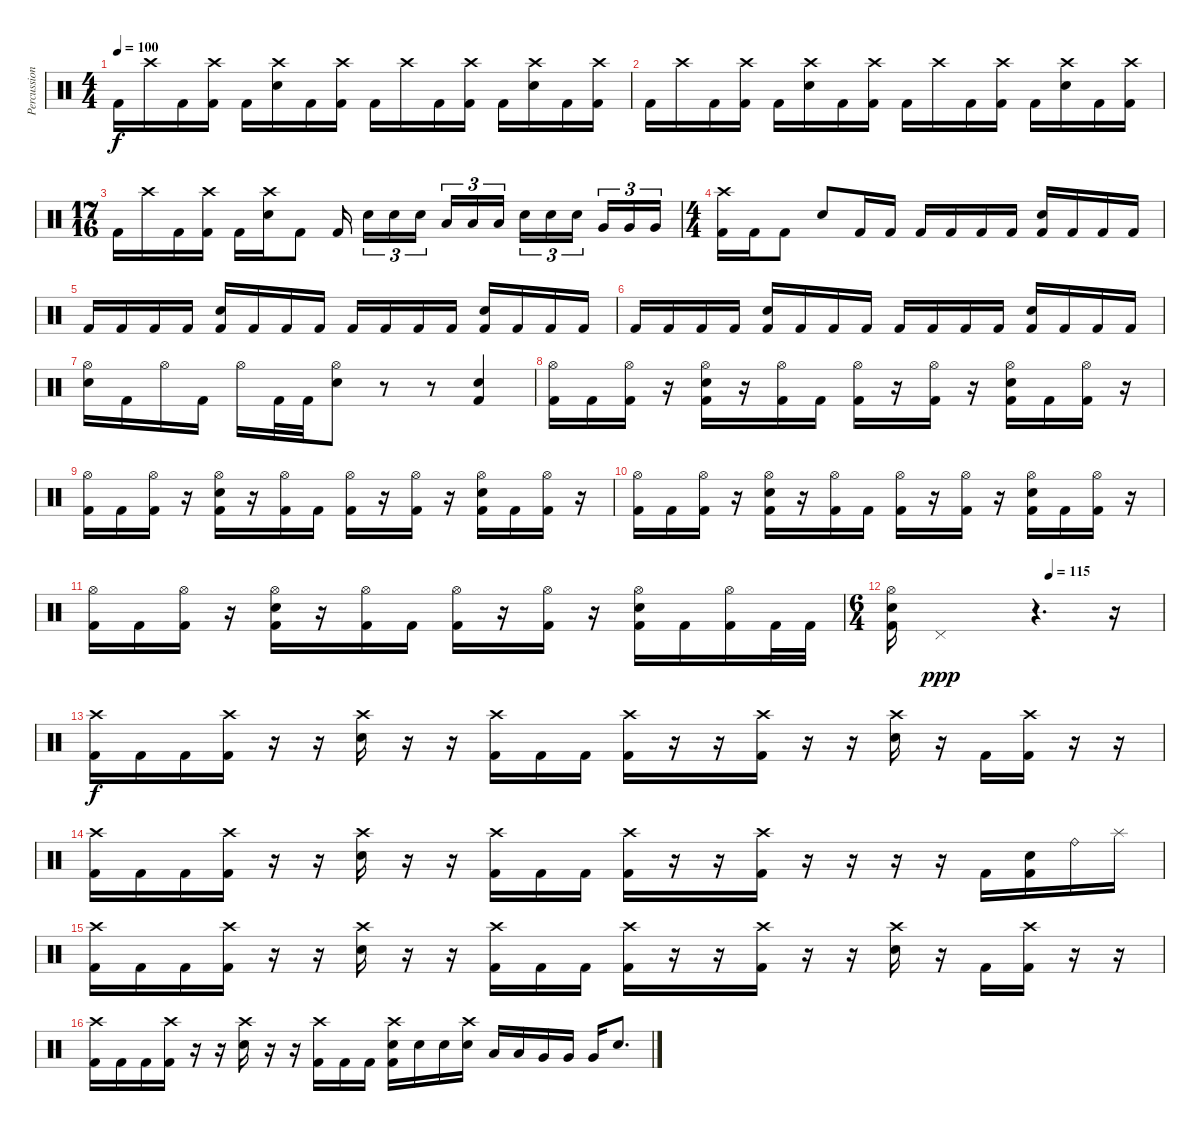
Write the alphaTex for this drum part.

\track ("Percussion" "Percussion") {instrument percussion}
\staff {score}
\articulation defaults
\ts (4 4)
\tempo 100
\clef neutral
\ks c "Kick (hit) 2".16{dy f} "Crash high (hit)".16 "Kick (hit) 2".16
("Crash high (hit)" "Kick (hit) 2").16 "Kick (hit) 2".16 ("Crash high (hit)" "Electric Snare (hit)").16 "Kick (hit) 2".16 ("Crash high (hit)" "Kick (hit) 2").16 "Kick (hit) 2".16 "Crash high (hit)".16 "Kick (hit) 2".16 ("Crash high (hit)" "Kick (hit) 2").16 "Kick (hit) 2".16 ("Crash high (hit)" "Electric Snare (hit)").16 "Kick (hit) 2".16 ("Crash high (hit)" "Kick (hit) 2").16 |
"Kick (hit) 2".16 "Crash high (hit)".16 "Kick (hit) 2".16 ("Crash high (hit)" "Kick (hit) 2").16 "Kick (hit) 2".16 ("Crash high (hit)" "Electric Snare (hit)").16 "Kick (hit) 2".16 ("Crash high (hit)" "Kick (hit) 2").16 "Kick (hit) 2".16 "Crash high (hit)".16 "Kick (hit) 2".16 ("Crash high (hit)" "Kick (hit) 2").16 "Kick (hit) 2".16 ("Crash high (hit)" "Electric Snare (hit)").16 "Kick (hit) 2".16 ("Crash high (hit)" "Kick (hit) 2").16 |
\ts (17 16)
"Kick (hit) 2".16 "Crash high (hit)".16 "Kick (hit) 2".16 ("Crash high (hit)" "Kick (hit) 2").16 "Kick (hit) 2".16 ("Crash high (hit)" "Electric Snare (hit)").16 "Kick (hit) 2".8 "Kick (hit) 2".16 "Electric Snare (hit)".16{tu (3 2)} "Electric Snare (hit)".16{tu (3 2)} "Electric Snare (hit)".16{tu (3 2)} "Low Tom (hit)".16{tu (3 2)} "Low Tom (hit)".16{tu (3 2)} "Low Tom (hit)".16{tu (3 2)} "Electric Snare (hit)".16{tu (3 2)} "Electric Snare (hit)".16{tu (3 2)} "Electric Snare (hit)".16{tu (3 2)} "Very Low Tom (hit)".16{tu (3 2)} "Very Low Tom (hit)".16{tu (3 2)} "Very Low Tom (hit)".16{tu (3 2)} |
\ts (4 4)
("Crash high (hit)" "Kick (hit) 2").16 "Kick (hit) 2".16 "Kick (hit) 2".8 "Electric Snare (hit)".8 "Kick (hit) 2".16 "Kick (hit) 2".16 "Kick (hit) 2".16 "Kick (hit) 2".16 "Kick (hit) 2".16 "Kick (hit) 2".16 ("Electric Snare (hit)" "Kick (hit) 2").16 "Kick (hit) 2".16 "Kick (hit) 2".16 "Kick (hit) 2".16 |
"Kick (hit) 2".16 "Kick (hit) 2".16 "Kick (hit) 2".16 "Kick (hit) 2".16 ("Electric Snare (hit)" "Kick (hit) 2").16 "Kick (hit) 2".16 "Kick (hit) 2".16 "Kick (hit) 2".16 "Kick (hit) 2".16 "Kick (hit) 2".16 "Kick (hit) 2".16 "Kick (hit) 2".16 ("Electric Snare (hit)" "Kick (hit) 2").16 "Kick (hit) 2".16 "Kick (hit) 2".16 "Kick (hit) 2".16 |
"Kick (hit) 2".16 "Kick (hit) 2".16 "Kick (hit) 2".16 "Kick (hit) 2".16 ("Electric Snare (hit)" "Kick (hit) 2").16 "Kick (hit) 2".16 "Kick (hit) 2".16 "Kick (hit) 2".16 "Kick (hit) 2".16 "Kick (hit) 2".16 "Kick (hit) 2".16 "Kick (hit) 2".16 ("Electric Snare (hit)" "Kick (hit) 2").16 "Kick (hit) 2".16 "Kick (hit) 2".16 "Kick (hit) 2".16 |
("Hi-Hat (open)" "Electric Snare (hit)").16 "Kick (hit) 2".16 "Hi-Hat (open)".16 "Kick (hit) 2".16 "Hi-Hat (open)".16 "Kick (hit) 2".32 "Kick (hit) 2".32 ("Hi-Hat (open)" "Electric Snare (hit)").8 r.8 r.8 ("Electric Snare (hit)" "Kick (hit) 2").4 |
("Hi-Hat (open)" "Kick (hit) 2").16 "Kick (hit) 2".16 ("Hi-Hat (open)" "Kick (hit) 2").16 r.16 ("Hi-Hat (open)" "Electric Snare (hit)" "Kick (hit) 2").16 r.16 ("Hi-Hat (open)" "Kick (hit) 2").16 "Kick (hit) 2".16 ("Hi-Hat (open)" "Kick (hit) 2").16 r.16 ("Hi-Hat (open)" "Kick (hit) 2").16 r.16 ("Hi-Hat (open)" "Electric Snare (hit)" "Kick (hit) 2").16 "Kick (hit) 2".16 ("Hi-Hat (open)" "Kick (hit) 2").16 r.16 |
("Hi-Hat (open)" "Kick (hit) 2").16 "Kick (hit) 2".16 ("Hi-Hat (open)" "Kick (hit) 2").16 r.16 ("Hi-Hat (open)" "Electric Snare (hit)" "Kick (hit) 2").16 r.16 ("Hi-Hat (open)" "Kick (hit) 2").16 "Kick (hit) 2".16 ("Hi-Hat (open)" "Kick (hit) 2").16 r.16 ("Hi-Hat (open)" "Kick (hit) 2").16 r.16 ("Hi-Hat (open)" "Electric Snare (hit)" "Kick (hit) 2").16 "Kick (hit) 2".16 ("Hi-Hat (open)" "Kick (hit) 2").16 r.16 |
("Hi-Hat (open)" "Kick (hit) 2").16 "Kick (hit) 2".16 ("Hi-Hat (open)" "Kick (hit) 2").16 r.16 ("Hi-Hat (open)" "Electric Snare (hit)" "Kick (hit) 2").16 r.16 ("Hi-Hat (open)" "Kick (hit) 2").16 "Kick (hit) 2".16 ("Hi-Hat (open)" "Kick (hit) 2").16 r.16 ("Hi-Hat (open)" "Kick (hit) 2").16 r.16 ("Hi-Hat (open)" "Electric Snare (hit)" "Kick (hit) 2").16 "Kick (hit) 2".16 ("Hi-Hat (open)" "Kick (hit) 2").16 r.16 |
("Hi-Hat (open)" "Kick (hit) 2").16 "Kick (hit) 2".16 ("Hi-Hat (open)" "Kick (hit) 2").16 r.16 ("Hi-Hat (open)" "Electric Snare (hit)" "Kick (hit) 2").16 r.16 ("Hi-Hat (open)" "Kick (hit) 2").16 "Kick (hit) 2".16 ("Hi-Hat (open)" "Kick (hit) 2").16 r.16 ("Hi-Hat (open)" "Kick (hit) 2").16 r.16 ("Hi-Hat (open)" "Electric Snare (hit)" "Kick (hit) 2").16 "Kick (hit) 2".16 ("Hi-Hat (open)" "Kick (hit) 2").16 "Kick (hit) 2".32 "Kick (hit) 2".32 |
\ts (6 4)
\tempo (115 0.5833333333333334)
("Hi-Hat (open)" "Electric Snare (hit)" "Kick (hit) 2").16 "Pedal Hi-Hat (hit)".1{dy ppp} r.4{d} r.16 |
("Crash high (hit)" "Kick (hit) 2").16{dy f} "Kick (hit) 2".16 "Kick (hit) 2".16 ("Crash high (hit)" "Kick (hit) 2").16 r.16 r.16 ("Crash high (hit)" "Electric Snare (hit)").16 r.16 r.16 ("Crash high (hit)" "Kick (hit) 2").16 "Kick (hit) 2".16 "Kick (hit) 2".16 ("Crash high (hit)" "Kick (hit) 2").16 r.16 r.16 ("Crash high (hit)" "Kick (hit) 2").16 r.16 r.16 ("Crash high (hit)" "Electric Snare (hit)").16 r.16 "Kick (hit) 2".16 ("Crash high (hit)" "Kick (hit) 2").16 r.16 r.16 |
("Crash high (hit)" "Kick (hit) 2").16 "Kick (hit) 2".16 "Kick (hit) 2".16 ("Crash high (hit)" "Kick (hit) 2").16 r.16 r.16 ("Crash high (hit)" "Electric Snare (hit)").16 r.16 r.16 ("Crash high (hit)" "Kick (hit) 2").16 "Kick (hit) 2".16 "Kick (hit) 2".16 ("Crash high (hit)" "Kick (hit) 2").16 r.16 r.16 ("Crash high (hit)" "Kick (hit) 2").16 r.16 r.16 r.16 r.16 "Kick (hit) 2".16 ("Electric Snare (hit)" "Kick (hit) 2").16 "Ride (bell)".16 "Splash (hit)".16 |
("Crash high (hit)" "Kick (hit) 2").16 "Kick (hit) 2".16 "Kick (hit) 2".16 ("Crash high (hit)" "Kick (hit) 2").16 r.16 r.16 ("Crash high (hit)" "Electric Snare (hit)").16 r.16 r.16 ("Crash high (hit)" "Kick (hit) 2").16 "Kick (hit) 2".16 "Kick (hit) 2".16 ("Crash high (hit)" "Kick (hit) 2").16 r.16 r.16 ("Crash high (hit)" "Kick (hit) 2").16 r.16 r.16 ("Crash high (hit)" "Electric Snare (hit)").16 r.16 "Kick (hit) 2".16 ("Crash high (hit)" "Kick (hit) 2").16 r.16 r.16 |
("Crash high (hit)" "Kick (hit) 2").16 "Kick (hit) 2".16 "Kick (hit) 2".16 ("Crash high (hit)" "Kick (hit) 2").16 r.16 r.16 ("Crash high (hit)" "Electric Snare (hit)").16 r.16 r.16 ("Crash high (hit)" "Kick (hit) 2").16 "Kick (hit) 2".16 "Kick (hit) 2".16 ("Crash high (hit)" "Electric Snare (hit)" "Kick (hit) 2").16 "Electric Snare (hit)".16 "Electric Snare (hit)".16 ("Crash high (hit)" "Electric Snare (hit)").16 "Low Tom (hit)".16 "Low Tom (hit)".16 "Very Low Tom (hit)".16 "Very Low Tom (hit)".16 "Very Low Tom (hit)".16 "Electric Snare (hit)".8{d}
